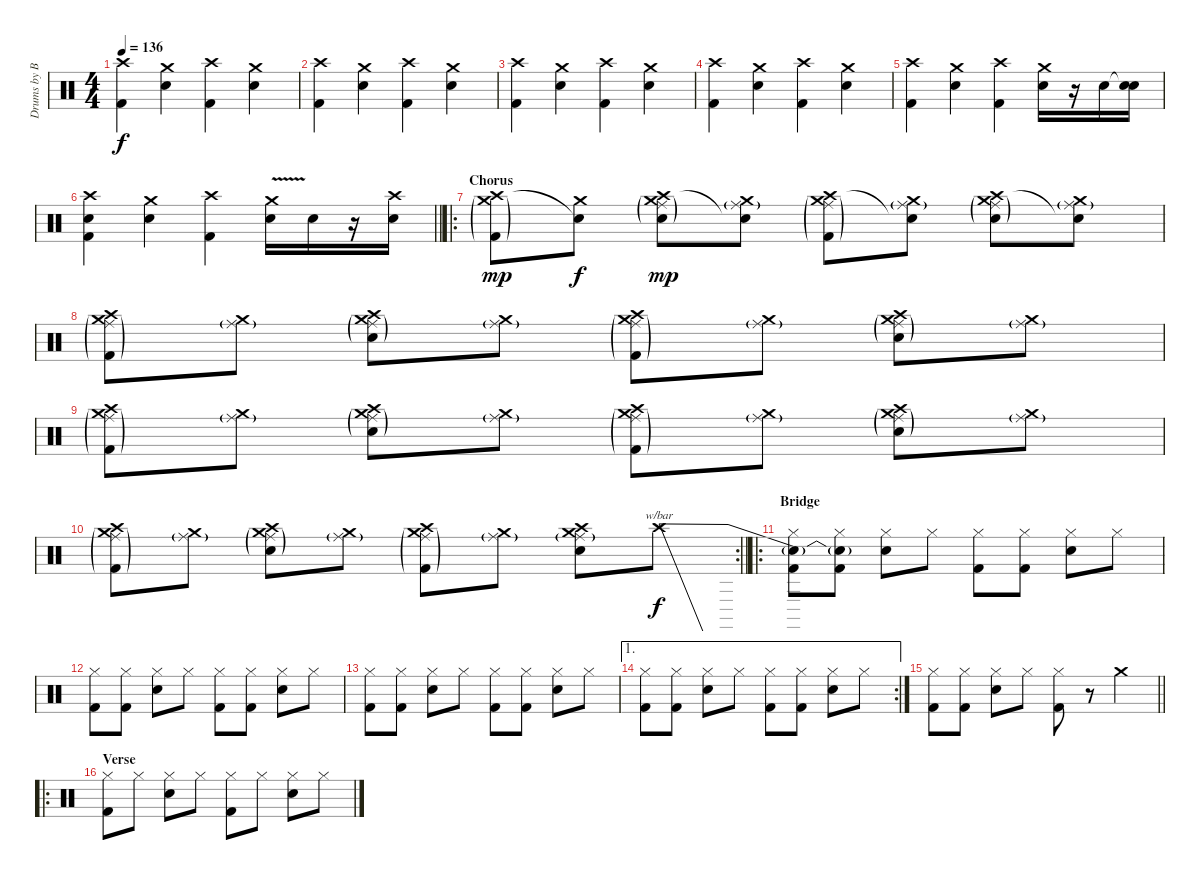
\track ("Drums by Blackgk" "Drums by B") {instrument percussion}
\staff {score}
\articulation defaults
\ts (4 4)
\tempo 136
\clef neutral
\ks c
("Crash high (hit)" "Kick (hit) 2").4{dy f} ("Crash medium (hit)" "Snare (hit) 2").4 ("Crash high (hit)" "Kick (hit) 2").4 ("Crash medium (hit)" "Snare (hit) 2").4 |
("Crash high (hit)" "Kick (hit) 2").4 ("Crash medium (hit)" "Snare (hit) 2").4 ("Crash high (hit)" "Kick (hit) 2").4 ("Crash medium (hit)" "Snare (hit) 2").4 |
("Crash high (hit)" "Kick (hit) 2").4 ("Crash medium (hit)" "Snare (hit) 2").4 ("Crash high (hit)" "Kick (hit) 2").4 ("Crash medium (hit)" "Snare (hit) 2").4 |
("Crash high (hit)" "Kick (hit) 2").4 ("Crash medium (hit)" "Snare (hit) 2").4 ("Crash high (hit)" "Kick (hit) 2").4 ("Crash medium (hit)" "Snare (hit) 2").4 |
("Crash high (hit)" "Kick (hit) 2").4 ("Crash medium (hit)" "Snare (hit) 2").4 ("Crash high (hit)" "Kick (hit) 2").4 ("Crash medium (hit)" "Snare (hit) 2").16 r.16 "Snare (hit) 2".16 ("Snare (hit)"{t} "Snare (hit) 2").16 |
\barLineRight lightlight
("Crash high (hit)" "Snare (hit) 2" "Kick (hit) 2").4 ("Crash medium (hit)" "Snare (hit) 2").4 ("Crash high (hit)" "Kick (hit) 2").4 ("Crash medium (hit)"{v} "Snare (hit) 2").16 "Snare (hit) 2".16 r.16 ("Crash high (hit)" "Snare (hit) 2").16 |
\ro
\section ("" "Chorus")
("Crash medium (hit)"{g} "Crash high (hit)" "Kick (hit) 2"{g}).8{dy mp} ("Crash medium (hit)" "Snare (hit)"{t}).8{dy f} ("Crash medium (hit)"{g} "Ride (middle)"{g} "Crash high (hit)" "Snare (hit) 2"{g}).8{dy mp} ("Crash medium (hit)" "Ride (middle)"{g} "Snare (hit)"{t}).8 ("Crash medium (hit)"{g} "Ride (middle)"{g} "Crash high (hit)" "Kick (hit) 2"{g}).8 ("Crash medium (hit)" "Ride (middle)"{g} "Snare (hit)"{t}).8 ("Crash medium (hit)"{g} "Ride (middle)"{g} "Crash high (hit)" "Snare (hit) 2"{g}).8 ("Crash medium (hit)" "Ride (middle)"{g} "Snare (hit)"{t}).8 |
("Crash medium (hit)"{g} "Ride (middle)"{g} "Crash high (hit)" "Kick (hit) 2"{g}).8 ("Crash medium (hit)" "Ride (middle)"{g}).8 ("Crash medium (hit)"{g} "Ride (middle)"{g} "Crash high (hit)" "Snare (hit) 2"{g}).8 ("Crash medium (hit)" "Ride (middle)"{g}).8 ("Crash medium (hit)"{g} "Ride (middle)"{g} "Crash high (hit)" "Kick (hit) 2"{g}).8 ("Crash medium (hit)" "Ride (middle)"{g}).8 ("Crash medium (hit)"{g} "Ride (middle)"{g} "Crash high (hit)" "Snare (hit) 2"{g}).8 ("Crash medium (hit)" "Ride (middle)"{g}).8 |
("Crash medium (hit)"{g} "Ride (middle)"{g} "Crash high (hit)" "Kick (hit) 2"{g}).8 ("Crash medium (hit)" "Ride (middle)"{g}).8 ("Crash medium (hit)"{g} "Ride (middle)"{g} "Crash high (hit)" "Snare (hit) 2"{g}).8 ("Crash medium (hit)" "Ride (middle)"{g}).8 ("Crash medium (hit)"{g} "Ride (middle)"{g} "Crash high (hit)" "Kick (hit) 2"{g}).8 ("Crash medium (hit)" "Ride (middle)"{g}).8 ("Crash medium (hit)"{g} "Ride (middle)"{g} "Crash high (hit)" "Snare (hit) 2"{g}).8 ("Crash medium (hit)" "Ride (middle)"{g}).8 |
\rc 2
\barLineRight lightlight
("Crash medium (hit)"{g} "Ride (middle)"{g} "Crash high (hit)" "Kick (hit) 2"{g}).8 ("Crash medium (hit)" "Ride (middle)"{g}).8 ("Crash medium (hit)"{g} "Ride (middle)"{g} "Crash high (hit)" "Snare (hit) 2"{g}).8 ("Crash medium (hit)" "Ride (middle)"{g}).8 ("Crash medium (hit)"{g} "Ride (middle)"{g} "Crash high (hit)" "Kick (hit) 2"{g}).8 ("Crash medium (hit)" "Ride (middle)"{g}).8 ("Crash medium (hit)" "Ride (middle)"{g} "Crash high (hit)" "Snare (hit) 2").8 "Crash high (hit)"{be (bend 0 0 60 2)}.8{tbe (dip default 0 0 30 -4 60 0) dy f} |
\ro
\section ("" "Bridge")
("Snare (hit)"{t} "Hi-Hat (closed)" "Kick (hit) 2").8 ("Snare (hit)"{t} "Hi-Hat (closed)" "Kick (hit) 2").8 ("Snare (hit) 2" "Hi-Hat (closed)").8 "Hi-Hat (closed)".8 ("Hi-Hat (closed)" "Kick (hit) 2").8 ("Hi-Hat (closed)" "Kick (hit) 2").8 ("Snare (hit) 2" "Hi-Hat (closed)").8 "Hi-Hat (closed)".8 |
("Hi-Hat (closed)" "Kick (hit) 2").8 ("Hi-Hat (closed)" "Kick (hit) 2").8 ("Snare (hit) 2" "Hi-Hat (closed)").8 "Hi-Hat (closed)".8 ("Hi-Hat (closed)" "Kick (hit) 2").8 ("Hi-Hat (closed)" "Kick (hit) 2").8 ("Snare (hit) 2" "Hi-Hat (closed)").8 "Hi-Hat (closed)".8 |
("Hi-Hat (closed)" "Kick (hit) 2").8 ("Hi-Hat (closed)" "Kick (hit) 2").8 ("Snare (hit) 2" "Hi-Hat (closed)").8 "Hi-Hat (closed)".8 ("Hi-Hat (closed)" "Kick (hit) 2").8 ("Hi-Hat (closed)" "Kick (hit) 2").8 ("Snare (hit) 2" "Hi-Hat (closed)").8 "Hi-Hat (closed)".8 |
\ae 1
\rc 2
("Hi-Hat (closed)" "Kick (hit) 2").8 ("Hi-Hat (closed)" "Kick (hit) 2").8 ("Snare (hit) 2" "Hi-Hat (closed)").8 "Hi-Hat (closed)".8 ("Hi-Hat (closed)" "Kick (hit) 2").8 ("Hi-Hat (closed)" "Kick (hit) 2").8 ("Snare (hit) 2" "Hi-Hat (closed)").8 "Hi-Hat (closed)".8 |
\barLineRight lightlight
("Hi-Hat (closed)" "Kick (hit) 2").8 ("Hi-Hat (closed)" "Kick (hit) 2").8 ("Snare (hit) 2" "Hi-Hat (closed)").8 "Hi-Hat (closed)".8 ("Hi-Hat (closed)" "Kick (hit) 2").8 r.8 "Crash medium (hit)".4 |
\ro
\section ("" "Verse")
("Hi-Hat (closed)" "Kick (hit) 2").8 "Hi-Hat (closed)".8 ("Snare (hit) 2" "Hi-Hat (closed)").8 "Hi-Hat (closed)".8 ("Hi-Hat (closed)" "Kick (hit) 2").8 "Hi-Hat (closed)".8 ("Snare (hit) 2" "Hi-Hat (closed)").8 "Hi-Hat (closed)".8
